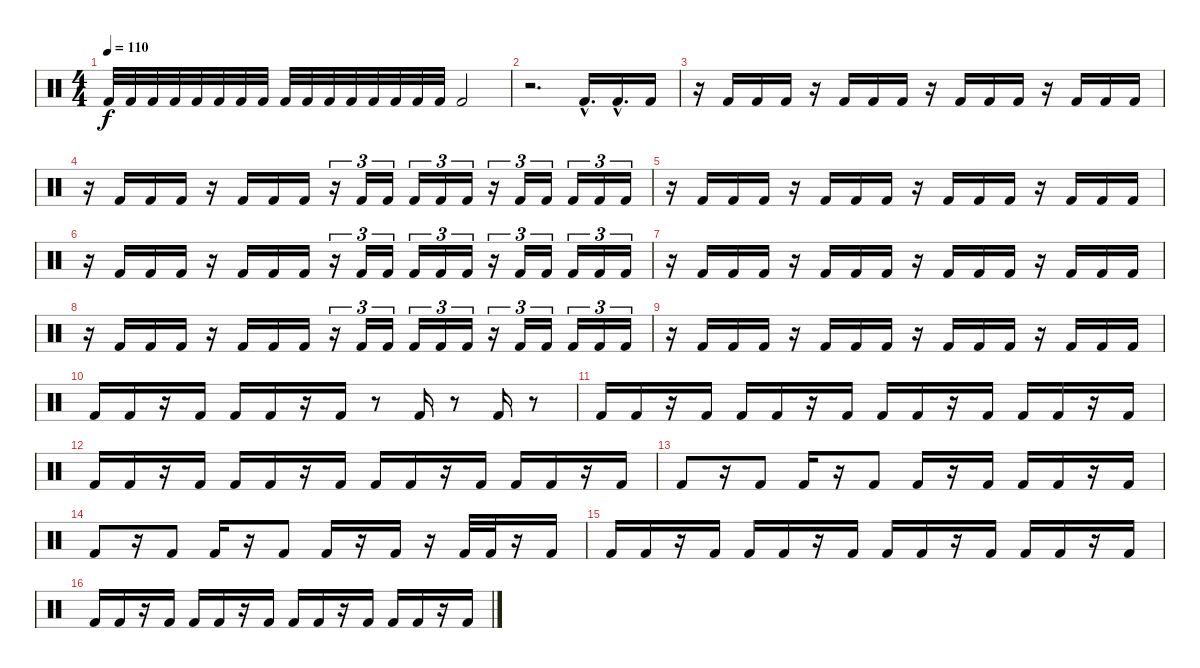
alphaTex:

\track "" {instrument percussion}
\staff {score}
\articulation defaults
\ts (4 4)
\tempo 110
\clef neutral
\ks c "Kick (hit) 2".32{dy f} "Kick (hit) 2".32 "Kick (hit) 2".32 "Kick (hit) 2".32 "Kick (hit) 2".32 "Kick (hit) 2".32 "Kick (hit) 2".32 "Kick (hit) 2".32 "Kick (hit) 2".32 "Kick (hit) 2".32 "Kick (hit) 2".32 "Kick (hit) 2".32 "Kick (hit) 2".32 "Kick (hit) 2".32 "Kick (hit) 2".32 "Kick (hit) 2".32 "Kick (hit) 2".2
|
r.2{d} "Kick (hit) 2"{hac}.16{d} "Kick (hit) 2"{hac}.16{d} "Kick (hit) 2".16 |
r.16 "Kick (hit) 2".16 "Kick (hit) 2".16 "Kick (hit) 2".16 r.16 "Kick (hit) 2".16 "Kick (hit) 2".16 "Kick (hit) 2".16 r.16 "Kick (hit) 2".16 "Kick (hit) 2".16 "Kick (hit) 2".16 r.16 "Kick (hit) 2".16 "Kick (hit) 2".16 "Kick (hit) 2".16 |
r.16 "Kick (hit) 2".16 "Kick (hit) 2".16 "Kick (hit) 2".16 r.16 "Kick (hit) 2".16 "Kick (hit) 2".16 "Kick (hit) 2".16 r.16{tu (3 2)} "Kick (hit) 2".16{tu (3 2)} "Kick (hit) 2".16{tu (3 2)} "Kick (hit) 2".16{tu (3 2)} "Kick (hit) 2".16{tu (3 2)} "Kick (hit) 2".16{tu (3 2)} r.16{tu (3 2)} "Kick (hit) 2".16{tu (3 2)} "Kick (hit) 2".16{tu (3 2)} "Kick (hit) 2".16{tu (3 2)} "Kick (hit) 2".16{tu (3 2)} "Kick (hit) 2".16{tu (3 2)} |
r.16 "Kick (hit) 2".16 "Kick (hit) 2".16 "Kick (hit) 2".16 r.16 "Kick (hit) 2".16 "Kick (hit) 2".16 "Kick (hit) 2".16 r.16 "Kick (hit) 2".16 "Kick (hit) 2".16 "Kick (hit) 2".16 r.16 "Kick (hit) 2".16 "Kick (hit) 2".16 "Kick (hit) 2".16 |
r.16 "Kick (hit) 2".16 "Kick (hit) 2".16 "Kick (hit) 2".16 r.16 "Kick (hit) 2".16 "Kick (hit) 2".16 "Kick (hit) 2".16 r.16{tu (3 2)} "Kick (hit) 2".16{tu (3 2)} "Kick (hit) 2".16{tu (3 2)} "Kick (hit) 2".16{tu (3 2)} "Kick (hit) 2".16{tu (3 2)} "Kick (hit) 2".16{tu (3 2)} r.16{tu (3 2)} "Kick (hit) 2".16{tu (3 2)} "Kick (hit) 2".16{tu (3 2)} "Kick (hit) 2".16{tu (3 2)} "Kick (hit) 2".16{tu (3 2)} "Kick (hit) 2".16{tu (3 2)} |
r.16 "Kick (hit) 2".16 "Kick (hit) 2".16 "Kick (hit) 2".16 r.16 "Kick (hit) 2".16 "Kick (hit) 2".16 "Kick (hit) 2".16 r.16 "Kick (hit) 2".16 "Kick (hit) 2".16 "Kick (hit) 2".16 r.16 "Kick (hit) 2".16 "Kick (hit) 2".16 "Kick (hit) 2".16 |
r.16 "Kick (hit) 2".16 "Kick (hit) 2".16 "Kick (hit) 2".16 r.16 "Kick (hit) 2".16 "Kick (hit) 2".16 "Kick (hit) 2".16 r.16{tu (3 2)} "Kick (hit) 2".16{tu (3 2)} "Kick (hit) 2".16{tu (3 2)} "Kick (hit) 2".16{tu (3 2)} "Kick (hit) 2".16{tu (3 2)} "Kick (hit) 2".16{tu (3 2)} r.16{tu (3 2)} "Kick (hit) 2".16{tu (3 2)} "Kick (hit) 2".16{tu (3 2)} "Kick (hit) 2".16{tu (3 2)} "Kick (hit) 2".16{tu (3 2)} "Kick (hit) 2".16{tu (3 2)} |
r.16 "Kick (hit) 2".16 "Kick (hit) 2".16 "Kick (hit) 2".16 r.16 "Kick (hit) 2".16 "Kick (hit) 2".16 "Kick (hit) 2".16 r.16 "Kick (hit) 2".16 "Kick (hit) 2".16 "Kick (hit) 2".16 r.16 "Kick (hit) 2".16 "Kick (hit) 2".16 "Kick (hit) 2".16 |
"Kick (hit) 2".16 "Kick (hit) 2".16 r.16 "Kick (hit) 2".16 "Kick (hit) 2".16 "Kick (hit) 2".16 r.16 "Kick (hit) 2".16 r.8 "Kick (hit) 2".16 r.8 "Kick (hit) 2".16 r.8 |
"Kick (hit) 2".16 "Kick (hit) 2".16 r.16 "Kick (hit) 2".16 "Kick (hit) 2".16 "Kick (hit) 2".16 r.16 "Kick (hit) 2".16 "Kick (hit) 2".16 "Kick (hit) 2".16 r.16 "Kick (hit) 2".16 "Kick (hit) 2".16 "Kick (hit) 2".16 r.16 "Kick (hit) 2".16 |
"Kick (hit) 2".16 "Kick (hit) 2".16 r.16 "Kick (hit) 2".16 "Kick (hit) 2".16 "Kick (hit) 2".16 r.16 "Kick (hit) 2".16 "Kick (hit) 2".16 "Kick (hit) 2".16 r.16 "Kick (hit) 2".16 "Kick (hit) 2".16 "Kick (hit) 2".16 r.16 "Kick (hit) 2".16 |
"Kick (hit) 2".8 r.16 "Kick (hit) 2".8 "Kick (hit) 2".16 r.16 "Kick (hit) 2".8 "Kick (hit) 2".16 r.16 "Kick (hit) 2".16 "Kick (hit) 2".16 "Kick (hit) 2".16 r.16 "Kick (hit) 2".16 |
"Kick (hit) 2".8 r.16 "Kick (hit) 2".8 "Kick (hit) 2".16 r.16 "Kick (hit) 2".8 "Kick (hit) 2".16 r.16 "Kick (hit) 2".16 r.16 "Kick (hit) 2".32 "Kick (hit) 2".32 r.16 "Kick (hit) 2".16 |
"Kick (hit) 2".16 "Kick (hit) 2".16 r.16 "Kick (hit) 2".16 "Kick (hit) 2".16 "Kick (hit) 2".16 r.16 "Kick (hit) 2".16 "Kick (hit) 2".16 "Kick (hit) 2".16 r.16 "Kick (hit) 2".16 "Kick (hit) 2".16 "Kick (hit) 2".16 r.16 "Kick (hit) 2".16 |
"Kick (hit) 2".16 "Kick (hit) 2".16 r.16 "Kick (hit) 2".16 "Kick (hit) 2".16 "Kick (hit) 2".16 r.16 "Kick (hit) 2".16 "Kick (hit) 2".16 "Kick (hit) 2".16 r.16 "Kick (hit) 2".16 "Kick (hit) 2".16 "Kick (hit) 2".16 r.16 "Kick (hit) 2".16
